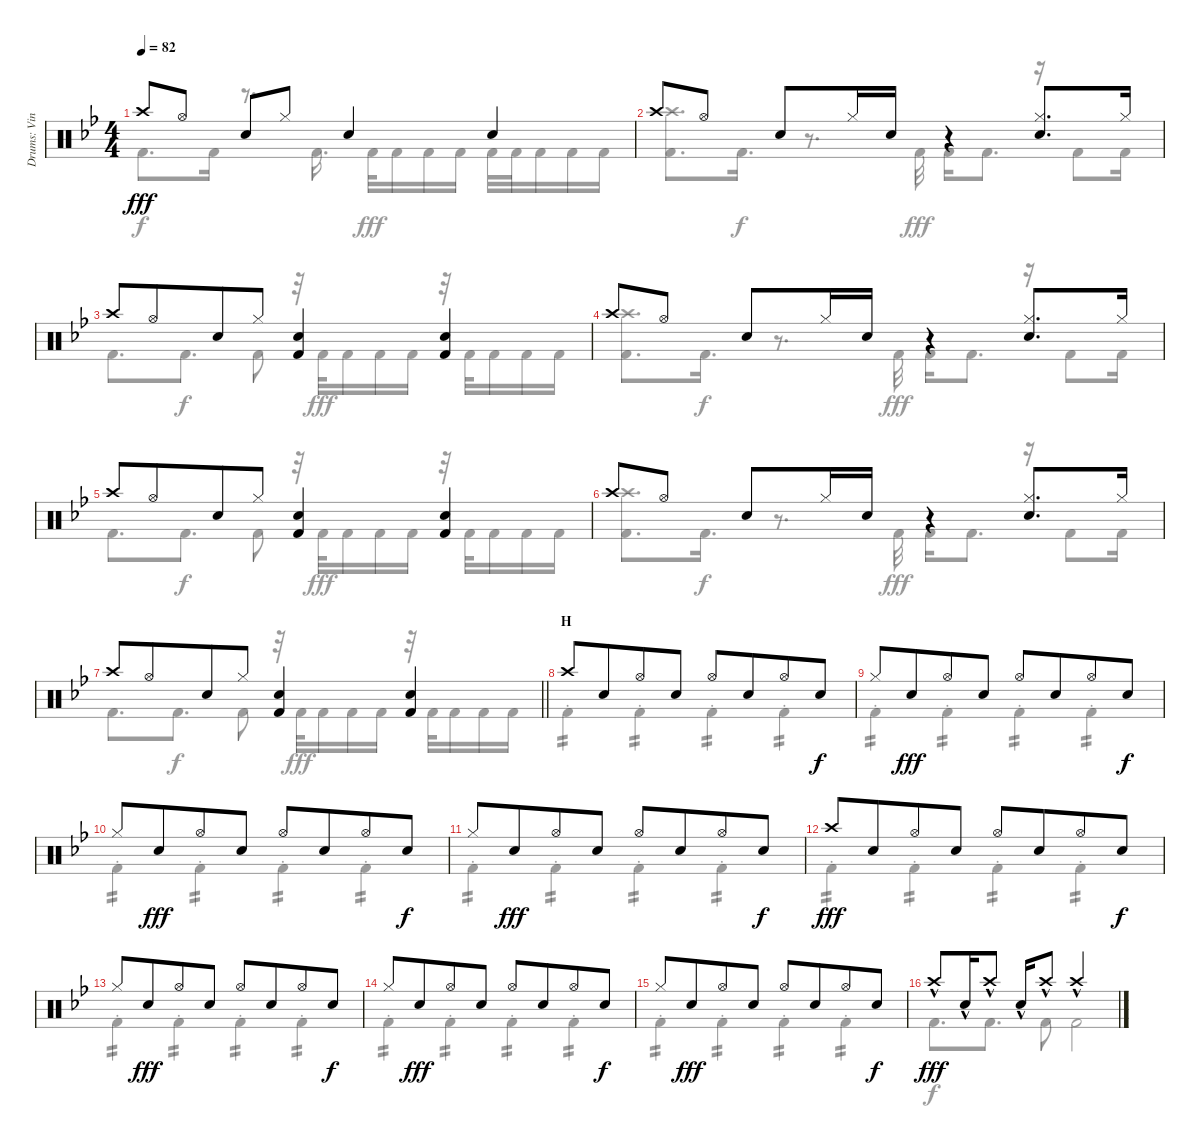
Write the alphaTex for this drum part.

\track ("Drums: Vinny" "Drums: Vin") {instrument percussion}
\staff {score}
\articulation defaults
\voice
\ts (4 4)
\tempo 82
\clef neutral
\ks bb "Crash high (hit)".8{dy fff} "Hi-Hat (open)".8 "Snare (hit) 2".8 "Hi-Hat (closed)".8 "Snare (hit) 2".4 "Snare (hit) 2".4
|
"Crash high (hit)".8 "Hi-Hat (open)".8 "Snare (hit) 2".8 "Hi-Hat (closed)".16 "Snare (hit) 2".16 r.4 ("Hi-Hat (closed)" "Snare (hit) 2").8{d} "Hi-Hat (closed)".16 |
"Crash high (hit)".8 "Hi-Hat (open)".8{beam merge} "Snare (hit) 2".8 "Hi-Hat (closed)".8 ("Snare (hit) 2" "Kick (hit) 2").4 ("Snare (hit) 2" "Kick (hit) 2").4 |
"Crash high (hit)".8 "Hi-Hat (open)".8 "Snare (hit) 2".8 "Hi-Hat (closed)".16 "Snare (hit) 2".16 r.4 ("Hi-Hat (closed)" "Snare (hit) 2").8{d} "Hi-Hat (closed)".16 |
"Crash high (hit)".8 "Hi-Hat (open)".8{beam merge} "Snare (hit) 2".8 "Hi-Hat (closed)".8 ("Snare (hit) 2" "Kick (hit) 2").4 ("Snare (hit) 2" "Kick (hit) 2").4 |
"Crash high (hit)".8 "Hi-Hat (open)".8 "Snare (hit) 2".8 "Hi-Hat (closed)".16 "Snare (hit) 2".16 r.4 ("Hi-Hat (closed)" "Snare (hit) 2").8{d} "Hi-Hat (closed)".16 |
\barLineRight lightlight "Crash high (hit)".8 "Hi-Hat (open)".8{beam merge} "Snare (hit) 2".8 "Hi-Hat (closed)".8
("Snare (hit) 2" "Kick (hit) 2").4 ("Snare (hit) 2" "Kick (hit) 2").4 |
\section ("" "H")
"Crash high (hit)".8 "Snare (hit) 2".8{beam merge} "Hi-Hat (open)".8 "Snare (hit) 2".8 "Hi-Hat (open)".8 "Snare (hit) 2".8{beam merge} "Hi-Hat (open)".8 "Snare (hit) 2".8{dy f} |
"Hi-Hat (closed)".8 "Snare (hit) 2".8{dy fff beam merge} "Hi-Hat (open)".8 "Snare (hit) 2".8 "Hi-Hat (open)".8 "Snare (hit) 2".8{beam merge} "Hi-Hat (open)".8 "Snare (hit) 2".8{dy f} |
"Hi-Hat (closed)".8 "Snare (hit) 2".8{dy fff beam merge} "Hi-Hat (open)".8 "Snare (hit) 2".8 "Hi-Hat (open)".8 "Snare (hit) 2".8{beam merge} "Hi-Hat (open)".8 "Snare (hit) 2".8{dy f} |
"Hi-Hat (closed)".8 "Snare (hit) 2".8{dy fff beam merge} "Hi-Hat (open)".8 "Snare (hit) 2".8 "Hi-Hat (open)".8 "Snare (hit) 2".8{beam merge} "Hi-Hat (open)".8 "Snare (hit) 2".8{dy f} |
"Crash high (hit)".8{dy fff} "Snare (hit) 2".8{beam merge} "Hi-Hat (open)".8 "Snare (hit) 2".8 "Hi-Hat (open)".8 "Snare (hit) 2".8{beam merge} "Hi-Hat (open)".8 "Snare (hit) 2".8{dy f} |
"Hi-Hat (closed)".8 "Snare (hit) 2".8{dy fff beam merge} "Hi-Hat (open)".8 "Snare (hit) 2".8 "Hi-Hat (open)".8 "Snare (hit) 2".8{beam merge} "Hi-Hat (open)".8 "Snare (hit) 2".8{dy f} |
"Hi-Hat (closed)".8 "Snare (hit) 2".8{dy fff beam merge} "Hi-Hat (open)".8 "Snare (hit) 2".8 "Hi-Hat (open)".8 "Snare (hit) 2".8{beam merge} "Hi-Hat (open)".8 "Snare (hit) 2".8{dy f} |
"Hi-Hat (closed)".8 "Snare (hit) 2".8{dy fff beam merge} "Hi-Hat (open)".8 "Snare (hit) 2".8 "Hi-Hat (open)".8 "Snare (hit) 2".8{beam merge} "Hi-Hat (open)".8 "Snare (hit) 2".8{dy f} |
"Crash high (hit)"{hac}.8{dy fff} "Snare (hit) 2"{hac}.16 "Crash high (hit)"{hac}.8 "Snare (hit) 2"{hac}.16 "Crash high (hit)"{hac}.8 "Crash high (hit)"{hac}.2
\voice
\clef neutral
\ottava regular
\simile none
\ks bb "Kick (hit) 2".8{d dy f} "Kick (hit) 2".16
r.8{d} "Kick (hit) 2".16{d} "Kick (hit) 2".32{dy fff} "Kick (hit) 2".16 "Kick (hit) 2".16 "Kick (hit) 2".16 "Kick (hit) 2".32 "Kick (hit) 2".32 "Kick (hit) 2".16 "Kick (hit) 2".16 "Kick (hit) 2".16 |
("Crash high (hit)" "Kick (hit) 2").8{d} "Kick (hit) 2".16{d dy f} r.8{d} "Kick (hit) 2".32{dy fff} "Kick (hit) 2".16 "Kick (hit) 2".8{d} r.16 "Kick (hit) 2".8 "Kick (hit) 2".16 |
"Kick (hit) 2".8{d} "Kick (hit) 2".8{d dy f} "Kick (hit) 2".8 r.32 "Kick (hit) 2".32{dy fff} "Kick (hit) 2".16 "Kick (hit) 2".16 "Kick (hit) 2".16 r.32 "Kick (hit) 2".32 "Kick (hit) 2".16 "Kick (hit) 2".16 "Kick (hit) 2".16 |
("Crash high (hit)" "Kick (hit) 2").8{d} "Kick (hit) 2".16{d dy f} r.8{d} "Kick (hit) 2".32{dy fff} "Kick (hit) 2".16 "Kick (hit) 2".8{d} r.16 "Kick (hit) 2".8 "Kick (hit) 2".16 |
"Kick (hit) 2".8{d} "Kick (hit) 2".8{d dy f} "Kick (hit) 2".8 r.32 "Kick (hit) 2".32{dy fff} "Kick (hit) 2".16 "Kick (hit) 2".16 "Kick (hit) 2".16 r.32 "Kick (hit) 2".32 "Kick (hit) 2".16 "Kick (hit) 2".16 "Kick (hit) 2".16 |
("Crash high (hit)" "Kick (hit) 2").8{d} "Kick (hit) 2".16{d dy f} r.8{d} "Kick (hit) 2".32{dy fff} "Kick (hit) 2".16 "Kick (hit) 2".8{d} r.16 "Kick (hit) 2".8 "Kick (hit) 2".16 |
\barLineRight lightlight "Kick (hit) 2".8{d} "Kick (hit) 2".8{d dy f} "Kick (hit) 2".8
r.32 "Kick (hit) 2".32{dy fff} "Kick (hit) 2".16 "Kick (hit) 2".16 "Kick (hit) 2".16 r.32 "Kick (hit) 2".32 "Kick (hit) 2".16 "Kick (hit) 2".16 "Kick (hit) 2".16 |
"Kick (hit) 2"{st}.4{tp 2} "Kick (hit) 2"{st}.4{tp 2} "Kick (hit) 2"{st}.4{tp 2} "Kick (hit) 2"{st}.4{tp 2} |
"Kick (hit) 2"{st}.4{tp 2} "Kick (hit) 2"{st}.4{tp 2} "Kick (hit) 2"{st}.4{tp 2} "Kick (hit) 2"{st}.4{tp 2} |
"Kick (hit) 2"{st}.4{tp 2} "Kick (hit) 2"{st}.4{tp 2} "Kick (hit) 2"{st}.4{tp 2} "Kick (hit) 2"{st}.4{tp 2} |
"Kick (hit) 2"{st}.4{tp 2} "Kick (hit) 2"{st}.4{tp 2} "Kick (hit) 2"{st}.4{tp 2} "Kick (hit) 2"{st}.4{tp 2} |
"Kick (hit) 2"{st}.4{tp 2} "Kick (hit) 2"{st}.4{tp 2} "Kick (hit) 2"{st}.4{tp 2} "Kick (hit) 2"{st}.4{tp 2} |
"Kick (hit) 2"{st}.4{tp 2} "Kick (hit) 2"{st}.4{tp 2} "Kick (hit) 2"{st}.4{tp 2} "Kick (hit) 2"{st}.4{tp 2} |
"Kick (hit) 2"{st}.4{tp 2} "Kick (hit) 2"{st}.4{tp 2} "Kick (hit) 2"{st}.4{tp 2} "Kick (hit) 2"{st}.4{tp 2} |
"Kick (hit) 2"{st}.4{tp 2} "Kick (hit) 2"{st}.4{tp 2} "Kick (hit) 2"{st}.4{tp 2} "Kick (hit) 2"{st}.4{tp 2} |
"Kick (hit) 2".8{d dy f} "Kick (hit) 2".8{d} "Kick (hit) 2".8 "Kick (hit) 2".2
